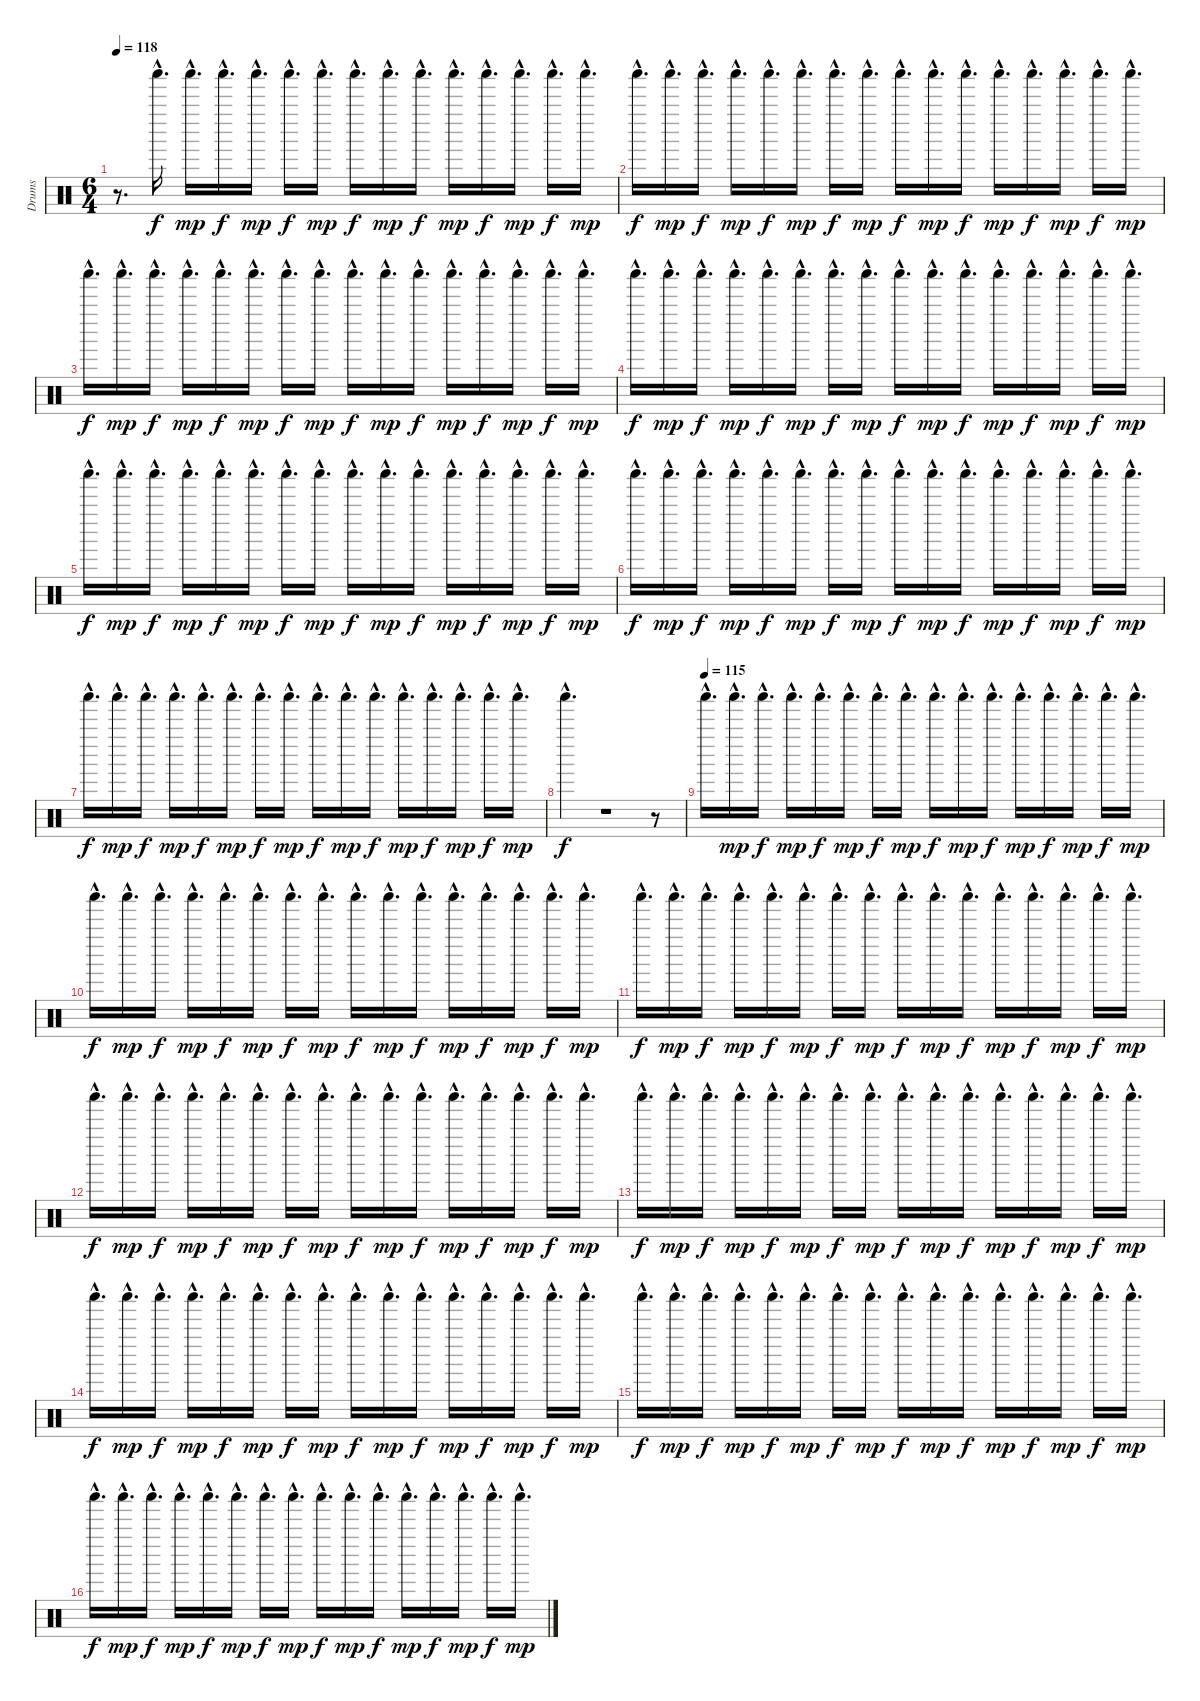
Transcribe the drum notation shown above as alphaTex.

\track ("Drums" "Drums") {instrument percussion}
\staff {score}
\articulation defaults
\ts (6 4)
\tempo 118
\tempo 112
\tempo 118
\clef neutral
\ks c
r.8{d dy f} "Shaker (hit)"{hac}.16{d volume 4} "Shaker (hit)"{hac}.16{d dy mp volume 4} "Shaker (hit)"{hac}.16{d dy f volume 8} "Shaker (hit)"{hac}.16{d dy mp} "Shaker (hit)"{hac}.16{d dy f} "Shaker (hit)"{hac}.16{d dy mp} "Shaker (hit)"{hac}.16{d dy f} "Shaker (hit)"{hac}.16{d dy mp} "Shaker (hit)"{hac}.16{d dy f} "Shaker (hit)"{hac}.16{d dy mp} "Shaker (hit)"{hac}.16{d dy f} "Shaker (hit)"{hac}.16{d dy mp} "Shaker (hit)"{hac}.16{d dy f} "Shaker (hit)"{hac}.16{d dy mp} |
"Shaker (hit)"{hac}.16{d dy f} "Shaker (hit)"{hac}.16{d dy mp} "Shaker (hit)"{hac}.16{d dy f} "Shaker (hit)"{hac}.16{d dy mp} "Shaker (hit)"{hac}.16{d dy f} "Shaker (hit)"{hac}.16{d dy mp} "Shaker (hit)"{hac}.16{d dy f} "Shaker (hit)"{hac}.16{d dy mp} "Shaker (hit)"{hac}.16{d dy f} "Shaker (hit)"{hac}.16{d dy mp} "Shaker (hit)"{hac}.16{d dy f} "Shaker (hit)"{hac}.16{d dy mp} "Shaker (hit)"{hac}.16{d dy f} "Shaker (hit)"{hac}.16{d dy mp} "Shaker (hit)"{hac}.16{d dy f} "Shaker (hit)"{hac}.16{d dy mp} |
"Shaker (hit)"{hac}.16{d dy f} "Shaker (hit)"{hac}.16{d dy mp} "Shaker (hit)"{hac}.16{d dy f} "Shaker (hit)"{hac}.16{d dy mp} "Shaker (hit)"{hac}.16{d dy f} "Shaker (hit)"{hac}.16{d dy mp} "Shaker (hit)"{hac}.16{d dy f} "Shaker (hit)"{hac}.16{d dy mp} "Shaker (hit)"{hac}.16{d dy f} "Shaker (hit)"{hac}.16{d dy mp} "Shaker (hit)"{hac}.16{d dy f} "Shaker (hit)"{hac}.16{d dy mp} "Shaker (hit)"{hac}.16{d dy f} "Shaker (hit)"{hac}.16{d dy mp} "Shaker (hit)"{hac}.16{d dy f} "Shaker (hit)"{hac}.16{d dy mp} |
"Shaker (hit)"{hac}.16{d dy f} "Shaker (hit)"{hac}.16{d dy mp} "Shaker (hit)"{hac}.16{d dy f} "Shaker (hit)"{hac}.16{d dy mp} "Shaker (hit)"{hac}.16{d dy f} "Shaker (hit)"{hac}.16{d dy mp} "Shaker (hit)"{hac}.16{d dy f} "Shaker (hit)"{hac}.16{d dy mp} "Shaker (hit)"{hac}.16{d dy f} "Shaker (hit)"{hac}.16{d dy mp} "Shaker (hit)"{hac}.16{d dy f} "Shaker (hit)"{hac}.16{d dy mp} "Shaker (hit)"{hac}.16{d dy f} "Shaker (hit)"{hac}.16{d dy mp} "Shaker (hit)"{hac}.16{d dy f} "Shaker (hit)"{hac}.16{d dy mp} |
"Shaker (hit)"{hac}.16{d dy f} "Shaker (hit)"{hac}.16{d dy mp} "Shaker (hit)"{hac}.16{d dy f} "Shaker (hit)"{hac}.16{d dy mp} "Shaker (hit)"{hac}.16{d dy f} "Shaker (hit)"{hac}.16{d dy mp} "Shaker (hit)"{hac}.16{d dy f} "Shaker (hit)"{hac}.16{d dy mp} "Shaker (hit)"{hac}.16{d dy f} "Shaker (hit)"{hac}.16{d dy mp} "Shaker (hit)"{hac}.16{d dy f} "Shaker (hit)"{hac}.16{d dy mp} "Shaker (hit)"{hac}.16{d dy f} "Shaker (hit)"{hac}.16{d dy mp} "Shaker (hit)"{hac}.16{d dy f} "Shaker (hit)"{hac}.16{d dy mp} |
"Shaker (hit)"{hac}.16{d dy f} "Shaker (hit)"{hac}.16{d dy mp} "Shaker (hit)"{hac}.16{d dy f} "Shaker (hit)"{hac}.16{d dy mp} "Shaker (hit)"{hac}.16{d dy f} "Shaker (hit)"{hac}.16{d dy mp} "Shaker (hit)"{hac}.16{d dy f} "Shaker (hit)"{hac}.16{d dy mp} "Shaker (hit)"{hac}.16{d dy f} "Shaker (hit)"{hac}.16{d dy mp} "Shaker (hit)"{hac}.16{d dy f} "Shaker (hit)"{hac}.16{d dy mp} "Shaker (hit)"{hac}.16{d dy f} "Shaker (hit)"{hac}.16{d dy mp} "Shaker (hit)"{hac}.16{d dy f} "Shaker (hit)"{hac}.16{d dy mp} |
"Shaker (hit)"{hac}.16{d dy f} "Shaker (hit)"{hac}.16{d dy mp} "Shaker (hit)"{hac}.16{d dy f} "Shaker (hit)"{hac}.16{d dy mp} "Shaker (hit)"{hac}.16{d dy f} "Shaker (hit)"{hac}.16{d dy mp} "Shaker (hit)"{hac}.16{d dy f} "Shaker (hit)"{hac}.16{d dy mp} "Shaker (hit)"{hac}.16{d dy f} "Shaker (hit)"{hac}.16{d dy mp} "Shaker (hit)"{hac}.16{d dy f} "Shaker (hit)"{hac}.16{d dy mp} "Shaker (hit)"{hac}.16{d dy f} "Shaker (hit)"{hac}.16{d dy mp} "Shaker (hit)"{hac}.16{d dy f} "Shaker (hit)"{hac}.16{d dy mp} |
"Shaker (hit)"{hac}.4{d dy f} r.1 r.8 |
\tempo (115)
"Shaker (hit)"{hac}.16{d} "Shaker (hit)"{hac}.16{d dy mp} "Shaker (hit)"{hac}.16{d dy f} "Shaker (hit)"{hac}.16{d dy mp} "Shaker (hit)"{hac}.16{d dy f} "Shaker (hit)"{hac}.16{d dy mp} "Shaker (hit)"{hac}.16{d dy f} "Shaker (hit)"{hac}.16{d dy mp} "Shaker (hit)"{hac}.16{d dy f} "Shaker (hit)"{hac}.16{d dy mp} "Shaker (hit)"{hac}.16{d dy f} "Shaker (hit)"{hac}.16{d dy mp} "Shaker (hit)"{hac}.16{d dy f} "Shaker (hit)"{hac}.16{d dy mp} "Shaker (hit)"{hac}.16{d dy f} "Shaker (hit)"{hac}.16{d dy mp} |
"Shaker (hit)"{hac}.16{d dy f} "Shaker (hit)"{hac}.16{d dy mp} "Shaker (hit)"{hac}.16{d dy f} "Shaker (hit)"{hac}.16{d dy mp} "Shaker (hit)"{hac}.16{d dy f} "Shaker (hit)"{hac}.16{d dy mp} "Shaker (hit)"{hac}.16{d dy f} "Shaker (hit)"{hac}.16{d dy mp} "Shaker (hit)"{hac}.16{d dy f} "Shaker (hit)"{hac}.16{d dy mp} "Shaker (hit)"{hac}.16{d dy f} "Shaker (hit)"{hac}.16{d dy mp} "Shaker (hit)"{hac}.16{d dy f} "Shaker (hit)"{hac}.16{d dy mp} "Shaker (hit)"{hac}.16{d dy f} "Shaker (hit)"{hac}.16{d dy mp} |
"Shaker (hit)"{hac}.16{d dy f} "Shaker (hit)"{hac}.16{d dy mp} "Shaker (hit)"{hac}.16{d dy f} "Shaker (hit)"{hac}.16{d dy mp} "Shaker (hit)"{hac}.16{d dy f} "Shaker (hit)"{hac}.16{d dy mp} "Shaker (hit)"{hac}.16{d dy f} "Shaker (hit)"{hac}.16{d dy mp} "Shaker (hit)"{hac}.16{d dy f} "Shaker (hit)"{hac}.16{d dy mp} "Shaker (hit)"{hac}.16{d dy f} "Shaker (hit)"{hac}.16{d dy mp} "Shaker (hit)"{hac}.16{d dy f} "Shaker (hit)"{hac}.16{d dy mp} "Shaker (hit)"{hac}.16{d dy f} "Shaker (hit)"{hac}.16{d dy mp} |
"Shaker (hit)"{hac}.16{d dy f} "Shaker (hit)"{hac}.16{d dy mp} "Shaker (hit)"{hac}.16{d dy f} "Shaker (hit)"{hac}.16{d dy mp} "Shaker (hit)"{hac}.16{d dy f} "Shaker (hit)"{hac}.16{d dy mp} "Shaker (hit)"{hac}.16{d dy f} "Shaker (hit)"{hac}.16{d dy mp} "Shaker (hit)"{hac}.16{d dy f} "Shaker (hit)"{hac}.16{d dy mp} "Shaker (hit)"{hac}.16{d dy f} "Shaker (hit)"{hac}.16{d dy mp} "Shaker (hit)"{hac}.16{d dy f} "Shaker (hit)"{hac}.16{d dy mp} "Shaker (hit)"{hac}.16{d dy f} "Shaker (hit)"{hac}.16{d dy mp} |
"Shaker (hit)"{hac}.16{d dy f} "Shaker (hit)"{hac}.16{d dy mp} "Shaker (hit)"{hac}.16{d dy f} "Shaker (hit)"{hac}.16{d dy mp} "Shaker (hit)"{hac}.16{d dy f} "Shaker (hit)"{hac}.16{d dy mp} "Shaker (hit)"{hac}.16{d dy f} "Shaker (hit)"{hac}.16{d dy mp} "Shaker (hit)"{hac}.16{d dy f} "Shaker (hit)"{hac}.16{d dy mp} "Shaker (hit)"{hac}.16{d dy f} "Shaker (hit)"{hac}.16{d dy mp} "Shaker (hit)"{hac}.16{d dy f} "Shaker (hit)"{hac}.16{d dy mp} "Shaker (hit)"{hac}.16{d dy f} "Shaker (hit)"{hac}.16{d dy mp} |
"Shaker (hit)"{hac}.16{d dy f} "Shaker (hit)"{hac}.16{d dy mp} "Shaker (hit)"{hac}.16{d dy f} "Shaker (hit)"{hac}.16{d dy mp} "Shaker (hit)"{hac}.16{d dy f} "Shaker (hit)"{hac}.16{d dy mp} "Shaker (hit)"{hac}.16{d dy f} "Shaker (hit)"{hac}.16{d dy mp} "Shaker (hit)"{hac}.16{d dy f} "Shaker (hit)"{hac}.16{d dy mp} "Shaker (hit)"{hac}.16{d dy f} "Shaker (hit)"{hac}.16{d dy mp} "Shaker (hit)"{hac}.16{d dy f} "Shaker (hit)"{hac}.16{d dy mp} "Shaker (hit)"{hac}.16{d dy f} "Shaker (hit)"{hac}.16{d dy mp} |
"Shaker (hit)"{hac}.16{d dy f} "Shaker (hit)"{hac}.16{d dy mp} "Shaker (hit)"{hac}.16{d dy f} "Shaker (hit)"{hac}.16{d dy mp} "Shaker (hit)"{hac}.16{d dy f} "Shaker (hit)"{hac}.16{d dy mp} "Shaker (hit)"{hac}.16{d dy f} "Shaker (hit)"{hac}.16{d dy mp} "Shaker (hit)"{hac}.16{d dy f} "Shaker (hit)"{hac}.16{d dy mp} "Shaker (hit)"{hac}.16{d dy f} "Shaker (hit)"{hac}.16{d dy mp} "Shaker (hit)"{hac}.16{d dy f} "Shaker (hit)"{hac}.16{d dy mp} "Shaker (hit)"{hac}.16{d dy f} "Shaker (hit)"{hac}.16{d dy mp} |
"Shaker (hit)"{hac}.16{d dy f volume 16} "Shaker (hit)"{hac}.16{d dy mp} "Shaker (hit)"{hac}.16{d dy f} "Shaker (hit)"{hac}.16{d dy mp} "Shaker (hit)"{hac}.16{d dy f} "Shaker (hit)"{hac}.16{d dy mp} "Shaker (hit)"{hac}.16{d dy f} "Shaker (hit)"{hac}.16{d dy mp} "Shaker (hit)"{hac}.16{d dy f} "Shaker (hit)"{hac}.16{d dy mp} "Shaker (hit)"{hac}.16{d dy f} "Shaker (hit)"{hac}.16{d dy mp} "Shaker (hit)"{hac}.16{d dy f} "Shaker (hit)"{hac}.16{d dy mp} "Shaker (hit)"{hac}.16{d dy f} "Shaker (hit)"{hac}.16{d dy mp}
